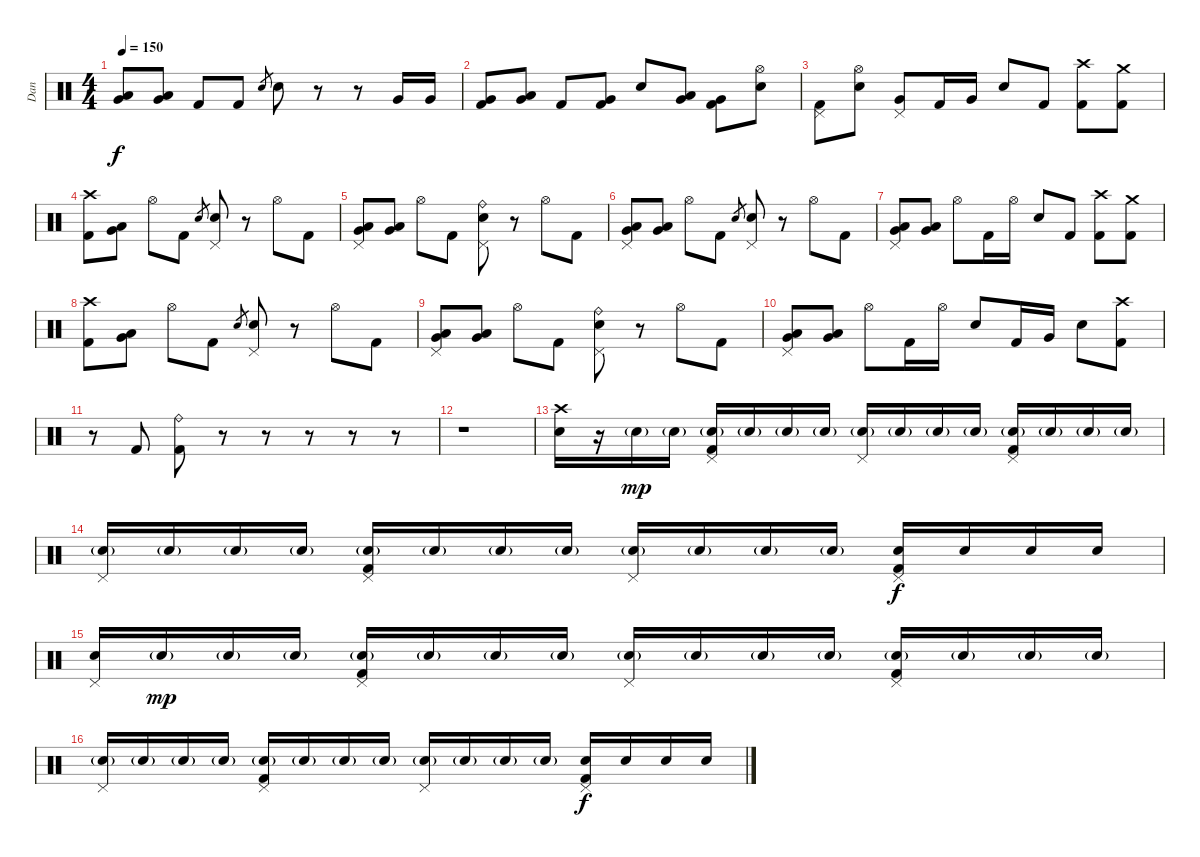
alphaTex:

\track ("Dan" "Dan") {instrument percussion}
\staff {score}
\articulation defaults
\ts (4 4)
\tempo 150
\clef neutral
\ks c
("Low Tom (hit)" "Very Low Tom (hit)").8{dy f} ("Low Tom (hit)" "Very Low Tom (hit)").8 "Kick (hit) 2".8 "Kick (hit) 2".8 "Electric Snare (hit)".8{gr} "Electric Snare (hit)".8 r.8 r.8 "Very Low Tom (hit)".16 "Very Low Tom (hit)".16 |
("Very Low Tom (hit)" "Kick (hit) 2").8 ("Low Tom (hit)" "Very Low Tom (hit)").8 "Kick (hit) 2".8 ("Very Low Tom (hit)" "Kick (hit) 2").8 "Electric Snare (hit)".8 ("Low Tom (hit)" "Very Low Tom (hit)").8 ("Very Low Tom (hit)" "Kick (hit) 2").8 ("Hi-Hat (open)" "Electric Snare (hit)").8 |
("Pedal Hi-Hat (hit)" "Kick (hit) 2").8 ("Hi-Hat (open)" "Electric Snare (hit)").8 ("Pedal Hi-Hat (hit)" "Very Low Tom (hit)").8 "Kick (hit) 2".16 "Very Low Tom (hit)".16 "Electric Snare (hit)".8 "Kick (hit) 2".8 ("Crash high (hit)" "Kick (hit) 2").8 ("Crash medium (hit)" "Kick (hit) 2").8 |
("Crash high (hit)" "Kick (hit) 2").8 ("Low Tom (hit)" "Very Low Tom (hit)").8 "Hi-Hat (open)".8 "Kick (hit) 2".8 "Electric Snare (hit)".8{gr} ("Pedal Hi-Hat (hit)" "Electric Snare (hit)").8 r.8 "Hi-Hat (open)".8 "Kick (hit) 2".8 |
("Pedal Hi-Hat (hit)" "Low Tom (hit)" "Very Low Tom (hit)").8 ("Low Tom (hit)" "Very Low Tom (hit)").8 "Hi-Hat (open)".8 "Kick (hit) 2".8 ("Ride (bell)" "Pedal Hi-Hat (hit)" "Electric Snare (hit)").8 r.8 "Hi-Hat (open)".8 "Kick (hit) 2".8 |
("Pedal Hi-Hat (hit)" "Low Tom (hit)" "Very Low Tom (hit)").8 ("Low Tom (hit)" "Very Low Tom (hit)").8 "Hi-Hat (open)".8 "Kick (hit) 2".8 "Electric Snare (hit)".8{gr} ("Pedal Hi-Hat (hit)" "Electric Snare (hit)").8 r.8 "Hi-Hat (open)".8 "Kick (hit) 2".8 |
("Pedal Hi-Hat (hit)" "Low Tom (hit)" "Very Low Tom (hit)").8 ("Low Tom (hit)" "Very Low Tom (hit)").8 "Hi-Hat (open)".8 "Kick (hit) 2".16 "Hi-Hat (open)".16 "Electric Snare (hit)".8 "Kick (hit) 2".8 ("Crash high (hit)" "Kick (hit) 2").8 ("Crash medium (hit)" "Kick (hit) 2").8 |
("Crash high (hit)" "Kick (hit) 2").8 ("Low Tom (hit)" "Very Low Tom (hit)").8 "Hi-Hat (open)".8 "Kick (hit) 2".8 "Electric Snare (hit)".8{gr} ("Pedal Hi-Hat (hit)" "Electric Snare (hit)").8 r.8 "Hi-Hat (open)".8 "Kick (hit) 2".8 |
("Pedal Hi-Hat (hit)" "Low Tom (hit)" "Very Low Tom (hit)").8 ("Low Tom (hit)" "Very Low Tom (hit)").8 "Hi-Hat (open)".8 "Kick (hit) 2".8 ("Ride (bell)" "Pedal Hi-Hat (hit)" "Electric Snare (hit)").8 r.8 "Hi-Hat (open)".8 "Kick (hit) 2".8 |
("Pedal Hi-Hat (hit)" "Low Tom (hit)" "Very Low Tom (hit)").8 ("Low Tom (hit)" "Very Low Tom (hit)").8 "Hi-Hat (open)".8 "Kick (hit) 2".16 "Hi-Hat (open)".16 "Electric Snare (hit)".8 "Kick (hit) 2".16 "Very Low Tom (hit)".16 "Electric Snare (hit)".8 ("Crash high (hit)" "Kick (hit) 2").8 |
r.8{volume 0} "Kick (hit) 2".8{volume 12} ("Ride (bell)" "Kick (hit) 2").8 r.8 r.8 r.8 r.8 r.8 |
r.1 |
("Crash high (hit)" "Electric Snare (hit)").16 r.16 "Electric Snare (hit)"{g}.16{dy mp} "Electric Snare (hit)"{g}.16 ("Pedal Hi-Hat (hit)" "Electric Snare (hit)"{g} "Kick (hit) 2").16 "Electric Snare (hit)"{g}.16 "Electric Snare (hit)"{g}.16 "Electric Snare (hit)"{g}.16 ("Pedal Hi-Hat (hit)" "Electric Snare (hit)"{g}).16 "Electric Snare (hit)"{g}.16 "Electric Snare (hit)"{g}.16 "Electric Snare (hit)"{g}.16 ("Pedal Hi-Hat (hit)" "Electric Snare (hit)"{g} "Kick (hit) 2").16 "Electric Snare (hit)"{g}.16 "Electric Snare (hit)"{g}.16 "Electric Snare (hit)"{g}.16 |
("Pedal Hi-Hat (hit)" "Electric Snare (hit)"{g}).16{volume 16} "Electric Snare (hit)"{g}.16 "Electric Snare (hit)"{g}.16 "Electric Snare (hit)"{g}.16 ("Pedal Hi-Hat (hit)" "Electric Snare (hit)"{g} "Kick (hit) 2").16 "Electric Snare (hit)"{g}.16 "Electric Snare (hit)"{g}.16 "Electric Snare (hit)"{g}.16 ("Pedal Hi-Hat (hit)" "Electric Snare (hit)"{g}).16 "Electric Snare (hit)"{g}.16 "Electric Snare (hit)"{g}.16 "Electric Snare (hit)"{g}.16 ("Pedal Hi-Hat (hit)" "Electric Snare (hit)" "Kick (hit) 2").16{dy f} "Electric Snare (hit)".16 "Electric Snare (hit)".16 "Electric Snare (hit)".16 |
("Pedal Hi-Hat (hit)" "Electric Snare (hit)").16{volume 12} "Electric Snare (hit)"{g}.16{dy mp} "Electric Snare (hit)"{g}.16 "Electric Snare (hit)"{g}.16 ("Pedal Hi-Hat (hit)" "Electric Snare (hit)"{g} "Kick (hit) 2").16 "Electric Snare (hit)"{g}.16 "Electric Snare (hit)"{g}.16 "Electric Snare (hit)"{g}.16 ("Pedal Hi-Hat (hit)" "Electric Snare (hit)"{g}).16 "Electric Snare (hit)"{g}.16 "Electric Snare (hit)"{g}.16 "Electric Snare (hit)"{g}.16 ("Pedal Hi-Hat (hit)" "Electric Snare (hit)"{g} "Kick (hit) 2").16 "Electric Snare (hit)"{g}.16 "Electric Snare (hit)"{g}.16 "Electric Snare (hit)"{g}.16 |
("Pedal Hi-Hat (hit)" "Electric Snare (hit)"{g}).16{volume 16} "Electric Snare (hit)"{g}.16 "Electric Snare (hit)"{g}.16 "Electric Snare (hit)"{g}.16 ("Pedal Hi-Hat (hit)" "Electric Snare (hit)"{g} "Kick (hit) 2").16 "Electric Snare (hit)"{g}.16 "Electric Snare (hit)"{g}.16 "Electric Snare (hit)"{g}.16 ("Pedal Hi-Hat (hit)" "Electric Snare (hit)"{g}).16 "Electric Snare (hit)"{g}.16 "Electric Snare (hit)"{g}.16 "Electric Snare (hit)"{g}.16 ("Pedal Hi-Hat (hit)" "Electric Snare (hit)" "Kick (hit) 2").16{dy f} "Electric Snare (hit)".16 "Electric Snare (hit)".16 "Electric Snare (hit)".16
